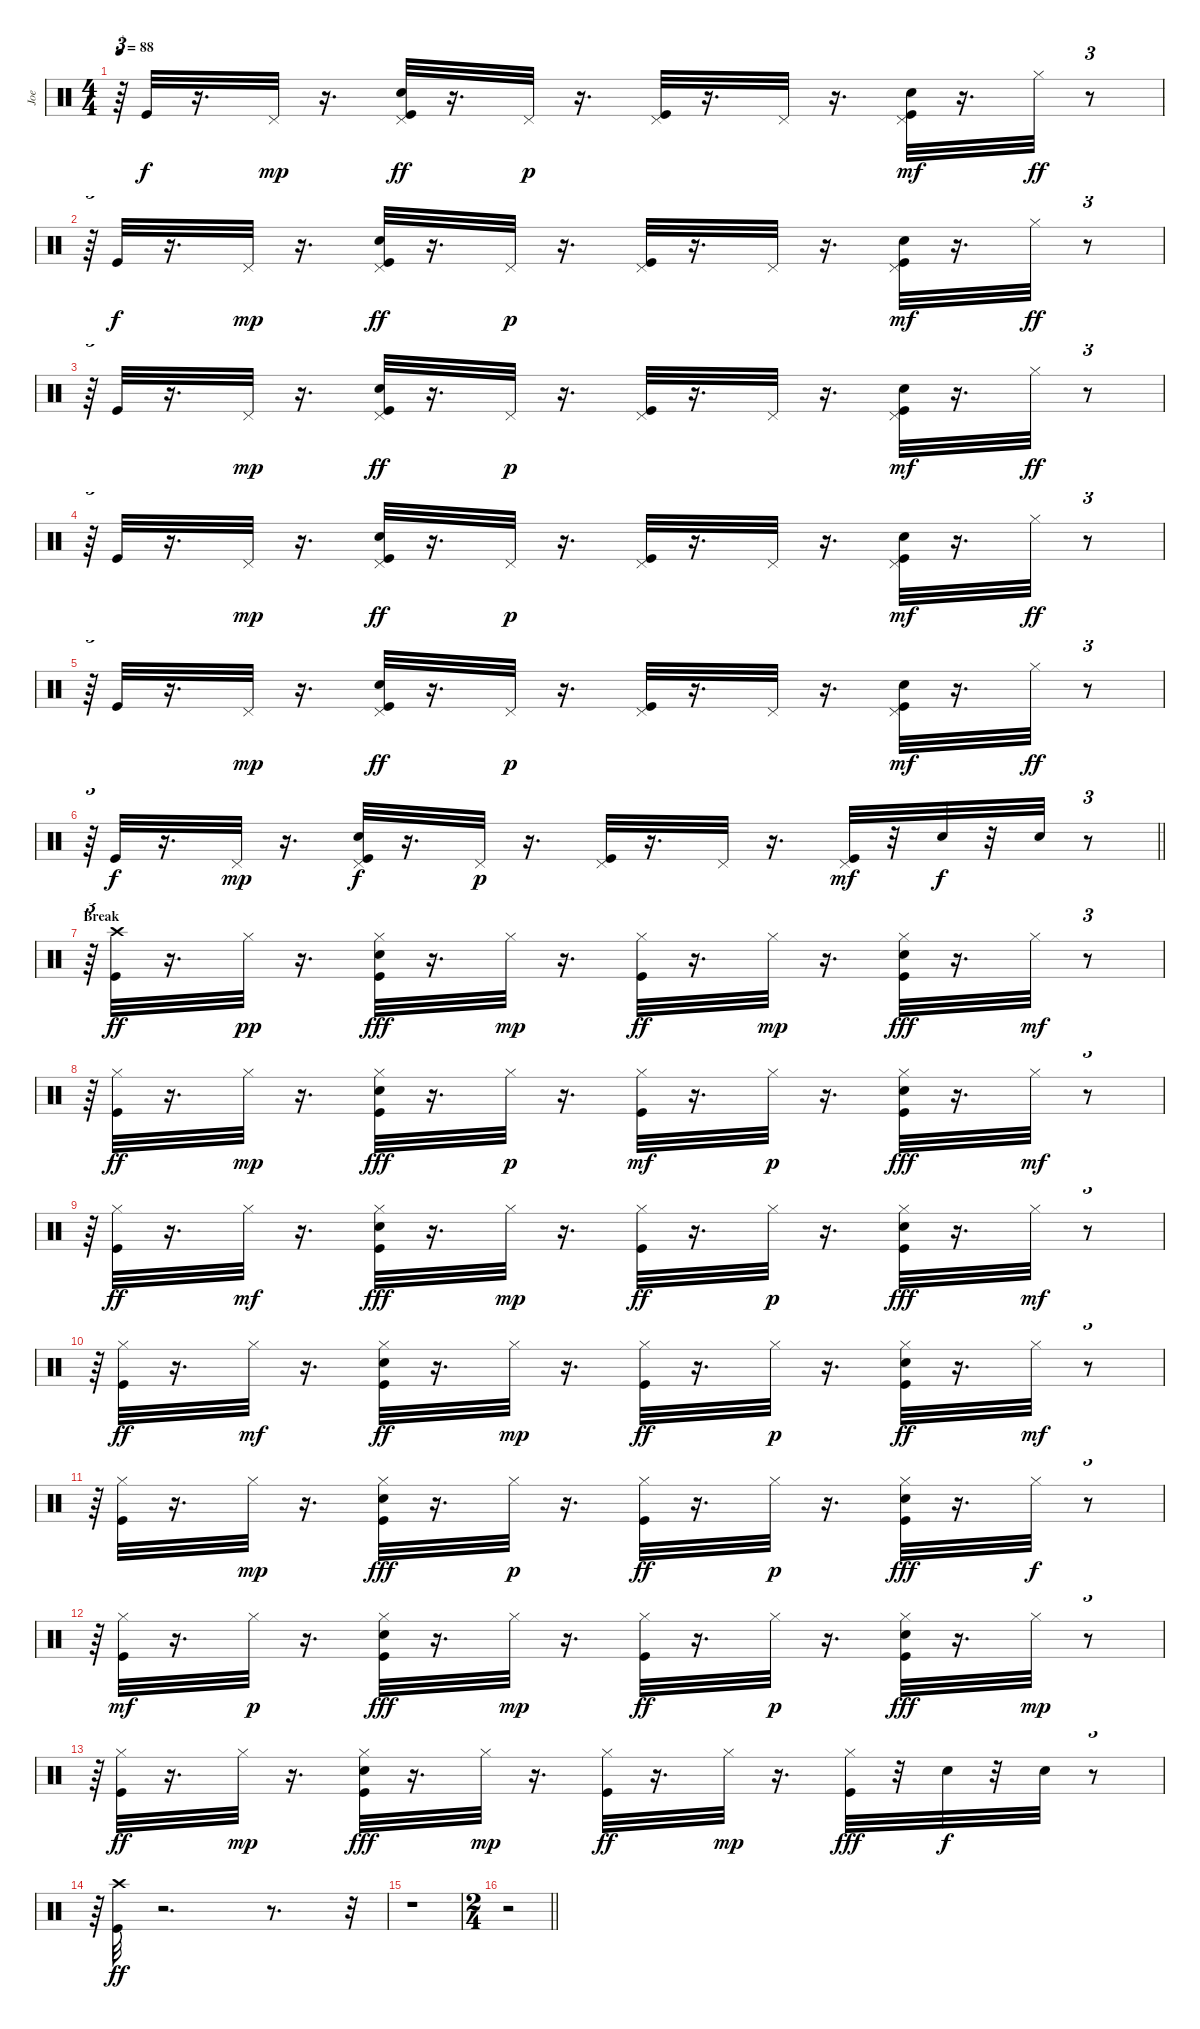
\track ("Joe" "Joe") {instrument percussion}
\staff {score}
\articulation defaults
\ts (4 4)
\tempo 88
\clef neutral
\ks c
r.64{tu (3 2) dy ff} "Kick (hit)".32{dy f} r.16{d} "Pedal Hi-Hat (hit)".32{dy mp} r.16{d} ("Pedal Hi-Hat (hit)" "Kick (hit)" "Electric Snare (hit)").32{dy ff} r.16{d} "Pedal Hi-Hat (hit)".32{dy p} r.16{d} ("Kick (hit)" "Pedal Hi-Hat (hit)").32 r.16{d} "Pedal Hi-Hat (hit)".32 r.16{d} ("Kick (hit)" "Electric Snare (hit)" "Pedal Hi-Hat (hit)").32{dy mf} r.16{d} "Hi-Hat (closed)".32{dy ff} r.8{tu (3 2)} |
r.64{tu (3 2)} "Kick (hit)".32{dy f} r.16{d} "Pedal Hi-Hat (hit)".32{dy mp} r.16{d} ("Pedal Hi-Hat (hit)" "Kick (hit)" "Electric Snare (hit)").32{dy ff} r.16{d} "Pedal Hi-Hat (hit)".32{dy p} r.16{d} ("Kick (hit)" "Pedal Hi-Hat (hit)").32 r.16{d} "Pedal Hi-Hat (hit)".32 r.16{d} ("Kick (hit)" "Electric Snare (hit)" "Pedal Hi-Hat (hit)").32{dy mf} r.16{d} "Hi-Hat (closed)".32{dy ff} r.8{tu (3 2)} |
r.64{tu (3 2)} "Kick (hit)".32 r.16{d} "Pedal Hi-Hat (hit)".32{dy mp} r.16{d} ("Pedal Hi-Hat (hit)" "Kick (hit)" "Electric Snare (hit)").32{dy ff} r.16{d} "Pedal Hi-Hat (hit)".32{dy p} r.16{d} ("Kick (hit)" "Pedal Hi-Hat (hit)").32 r.16{d} "Pedal Hi-Hat (hit)".32 r.16{d} ("Kick (hit)" "Electric Snare (hit)" "Pedal Hi-Hat (hit)").32{dy mf} r.16{d} "Hi-Hat (closed)".32{dy ff} r.8{tu (3 2)} |
r.64{tu (3 2)} "Kick (hit)".32 r.16{d} "Pedal Hi-Hat (hit)".32{dy mp} r.16{d} ("Pedal Hi-Hat (hit)" "Kick (hit)" "Electric Snare (hit)").32{dy ff} r.16{d} "Pedal Hi-Hat (hit)".32{dy p} r.16{d} ("Kick (hit)" "Pedal Hi-Hat (hit)").32 r.16{d} "Pedal Hi-Hat (hit)".32 r.16{d} ("Kick (hit)" "Electric Snare (hit)" "Pedal Hi-Hat (hit)").32{dy mf} r.16{d} "Hi-Hat (closed)".32{dy ff} r.8{tu (3 2)} |
r.64{tu (3 2)} "Kick (hit)".32 r.16{d} "Pedal Hi-Hat (hit)".32{dy mp} r.16{d} ("Pedal Hi-Hat (hit)" "Kick (hit)" "Electric Snare (hit)").32{dy ff} r.16{d} "Pedal Hi-Hat (hit)".32{dy p} r.16{d} ("Kick (hit)" "Pedal Hi-Hat (hit)").32 r.16{d} "Pedal Hi-Hat (hit)".32 r.16{d} ("Kick (hit)" "Electric Snare (hit)" "Pedal Hi-Hat (hit)").32{dy mf} r.16{d} "Hi-Hat (closed)".32{dy ff} r.8{tu (3 2)} |
\barLineRight lightlight
r.64{tu (3 2)} "Kick (hit)".32{dy f} r.16{d} "Pedal Hi-Hat (hit)".32{dy mp} r.16{d} ("Pedal Hi-Hat (hit)" "Kick (hit)" "Electric Snare (hit)").32{dy f} r.16{d} "Pedal Hi-Hat (hit)".32{dy p} r.16{d} ("Kick (hit)" "Pedal Hi-Hat (hit)").32 r.16{d} "Pedal Hi-Hat (hit)".32 r.16{d} ("Kick (hit)" "Pedal Hi-Hat (hit)").32{dy mf} r.32 "Electric Snare (hit)".32{dy f} r.32 "Electric Snare (hit)".32 r.8{tu (3 2)} |
\section ("" "Break")
r.64{tu (3 2)} ("Kick (hit)" "Crash high (hit)").32{dy ff} r.16{d} "Hi-Hat (closed)".32{dy pp} r.16{d} ("Kick (hit)" "Electric Snare (hit)" "Hi-Hat (closed)").32{dy fff} r.16{d} "Hi-Hat (closed)".32{dy mp} r.16{d} ("Kick (hit)" "Hi-Hat (closed)").32{dy ff} r.16{d} "Hi-Hat (closed)".32{dy mp} r.16{d} ("Kick (hit)" "Electric Snare (hit)" "Hi-Hat (closed)").32{dy fff} r.16{d} "Hi-Hat (closed)".32{dy mf} r.8{tu (3 2)} |
r.64{tu (3 2)} ("Kick (hit)" "Hi-Hat (closed)").32{dy ff} r.16{d} "Hi-Hat (closed)".32{dy mp} r.16{d} ("Kick (hit)" "Hi-Hat (closed)" "Electric Snare (hit)").32{dy fff} r.16{d} "Hi-Hat (closed)".32{dy p} r.16{d} ("Kick (hit)" "Hi-Hat (closed)").32{dy mf} r.16{d} "Hi-Hat (closed)".32{dy p} r.16{d} ("Kick (hit)" "Electric Snare (hit)" "Hi-Hat (closed)").32{dy fff} r.16{d} "Hi-Hat (closed)".32{dy mf} r.8{tu (3 2)} |
r.64{tu (3 2)} ("Kick (hit)" "Hi-Hat (closed)").32{dy ff} r.16{d} "Hi-Hat (closed)".32{dy mf} r.16{d} ("Kick (hit)" "Electric Snare (hit)" "Hi-Hat (closed)").32{dy fff} r.16{d} "Hi-Hat (closed)".32{dy mp} r.16{d} ("Kick (hit)" "Hi-Hat (closed)").32{dy ff} r.16{d} "Hi-Hat (closed)".32{dy p} r.16{d} ("Hi-Hat (closed)" "Kick (hit)" "Electric Snare (hit)").32{dy fff} r.16{d} "Hi-Hat (closed)".32{dy mf} r.8{tu (3 2)} |
r.64{tu (3 2)} ("Kick (hit)" "Hi-Hat (closed)").32{dy ff} r.16{d} "Hi-Hat (closed)".32{dy mf} r.16{d} ("Hi-Hat (closed)" "Kick (hit)" "Electric Snare (hit)").32{dy ff} r.16{d} "Hi-Hat (closed)".32{dy mp} r.16{d} ("Hi-Hat (closed)" "Kick (hit)").32{dy ff} r.16{d} "Hi-Hat (closed)".32{dy p} r.16{d} ("Kick (hit)" "Electric Snare (hit)" "Hi-Hat (closed)").32{dy ff} r.16{d} "Hi-Hat (closed)".32{dy mf} r.8{tu (3 2)} |
r.64{tu (3 2)} ("Kick (hit)" "Hi-Hat (closed)").32 r.16{d} "Hi-Hat (closed)".32{dy mp} r.16{d} ("Kick (hit)" "Hi-Hat (closed)" "Electric Snare (hit)").32{dy fff} r.16{d} "Hi-Hat (closed)".32{dy p} r.16{d} ("Kick (hit)" "Hi-Hat (closed)").32{dy ff} r.16{d} "Hi-Hat (closed)".32{dy p} r.16{d} ("Hi-Hat (closed)" "Kick (hit)" "Electric Snare (hit)").32{dy fff} r.16{d} "Hi-Hat (closed)".32{dy f} r.8{tu (3 2)} |
r.64{tu (3 2)} ("Hi-Hat (closed)" "Kick (hit)").32{dy mf} r.16{d} "Hi-Hat (closed)".32{dy p} r.16{d} ("Kick (hit)" "Electric Snare (hit)" "Hi-Hat (closed)").32{dy fff} r.16{d} "Hi-Hat (closed)".32{dy mp} r.16{d} ("Kick (hit)" "Hi-Hat (closed)").32{dy ff} r.16{d} "Hi-Hat (closed)".32{dy p} r.16{d} ("Hi-Hat (closed)" "Kick (hit)" "Electric Snare (hit)").32{dy fff} r.16{d} "Hi-Hat (closed)".32{dy mp} r.8{tu (3 2)} |
r.64{tu (3 2)} ("Hi-Hat (closed)" "Kick (hit)").32{dy ff} r.16{d} "Hi-Hat (closed)".32{dy mp} r.16{d} ("Kick (hit)" "Electric Snare (hit)" "Hi-Hat (closed)").32{dy fff} r.16{d} "Hi-Hat (closed)".32{dy mp} r.16{d} ("Kick (hit)" "Hi-Hat (closed)").32{dy ff} r.16{d} "Hi-Hat (closed)".32{dy mp} r.16{d} ("Kick (hit)" "Hi-Hat (closed)").32{dy fff} r.32 "Electric Snare (hit)".32{dy f} r.32 "Electric Snare (hit)".32 r.8{tu (3 2)} |
r.64{tu (3 2)} ("Kick (hit)" "Crash high (hit)").32{dy ff} r.2{d} r.8{d} r.32{tu (3 2)} |
r.1 |
\ts (2 4)
\barLineRight lightlight
r.2
